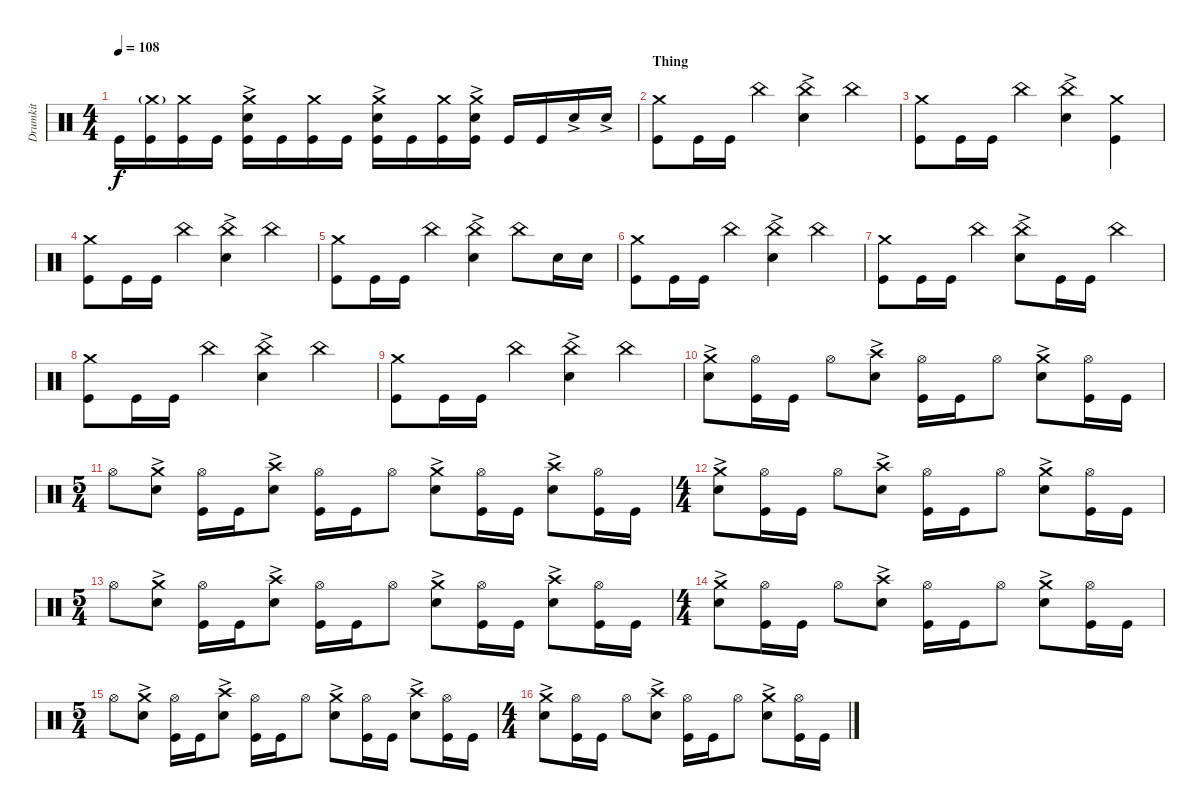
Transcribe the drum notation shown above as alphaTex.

\track ("Drumkit" "Drumkit") {instrument percussion}
\staff {score}
\articulation defaults
\ts (4 4)
\tempo 108
\clef neutral
\ks c "Kick (hit)".16{dy f}
("Kick (hit)" "Crash medium (hit)"{g}).16 ("Kick (hit)" "Crash medium (hit)").16 "Kick (hit)".16 ("Kick (hit)" "Snare (hit) 2"{ac} "Crash medium (hit)").16 "Kick (hit)".16 ("Kick (hit)" "Crash medium (hit)").16 "Kick (hit)".16 ("Kick (hit)" "Snare (hit) 2"{ac} "Crash medium (hit)").16 "Kick (hit)".16 ("Kick (hit)" "Crash medium (hit)").16 ("Kick (hit)" "Snare (hit) 2"{ac} "Crash medium (hit)").16 "Kick (hit)".16 "Kick (hit)".16 "Snare (hit) 2"{ac}.16 "Snare (hit) 2"{ac}.16 |
\section ("" "Thing")
("Kick (hit)" "Crash medium (hit)").8 "Kick (hit)".16 "Kick (hit)".16 "China (hit)".4 ("China (hit)" "Snare (hit) 2"{ac}).4 "China (hit)".4 |
("Kick (hit)" "Crash medium (hit)").8 "Kick (hit)".16 "Kick (hit)".16 "China (hit)".4 ("China (hit)" "Snare (hit) 2"{ac}).4 ("Kick (hit)" "Crash medium (hit)").4 |
("Kick (hit)" "Crash medium (hit)").8 "Kick (hit)".16 "Kick (hit)".16 "China (hit)".4 ("China (hit)" "Snare (hit) 2"{ac}).4 "China (hit)".4 |
("Kick (hit)" "Crash medium (hit)").8 "Kick (hit)".16 "Kick (hit)".16 "China (hit)".4 ("China (hit)" "Snare (hit) 2"{ac}).4 "China (hit)".8 "Snare (hit) 2".16 "Snare (hit) 2".16 |
("Kick (hit)" "Crash medium (hit)").8 "Kick (hit)".16 "Kick (hit)".16 "China (hit)".4 ("China (hit)" "Snare (hit) 2"{ac}).4 "China (hit)".4 |
("Kick (hit)" "Crash medium (hit)").8 "Kick (hit)".16 "Kick (hit)".16 "China (hit)".4 ("China (hit)" "Snare (hit) 2"{ac}).8 "Kick (hit)".16 "Kick (hit)".16 "China (hit)".4 |
("Kick (hit)" "Crash medium (hit)").8 "Kick (hit)".16 "Kick (hit)".16 "China (hit)".4 ("China (hit)" "Snare (hit) 2"{ac}).4 "China (hit)".4 |
("Kick (hit)" "Crash medium (hit)").8 "Kick (hit)".16 "Kick (hit)".16 "China (hit)".4 ("China (hit)" "Snare (hit) 2"{ac}).4 "China (hit)".4 |
("Snare (hit) 2"{ac} "Crash medium (hit)").8 ("Kick (hit)" "Hi-Hat (open)").16 "Kick (hit)".16 "Hi-Hat (open)".8 ("Snare (hit) 2"{ac} "Crash high (hit)").8 ("Kick (hit)" "Hi-Hat (open)").16 "Kick (hit)".16 "Hi-Hat (open)".8 ("Snare (hit) 2"{ac} "Crash medium (hit)").8 ("Kick (hit)" "Hi-Hat (open)").16 "Kick (hit)".16 |
\ts (5 4)
"Hi-Hat (open)".8 ("Snare (hit) 2"{ac} "Crash medium (hit)").8 ("Kick (hit)" "Hi-Hat (open)").16 "Kick (hit)".16 ("Snare (hit) 2"{ac} "Crash high (hit)").8 ("Kick (hit)" "Hi-Hat (open)").16 "Kick (hit)".16 "Hi-Hat (open)".8 ("Snare (hit) 2"{ac} "Crash medium (hit)").8 ("Kick (hit)" "Hi-Hat (open)").16 "Kick (hit)".16 ("Snare (hit) 2"{ac} "Crash high (hit)").8 ("Kick (hit)" "Hi-Hat (open)").16 "Kick (hit)".16 |
\ts (4 4)
("Snare (hit) 2"{ac} "Crash medium (hit)").8 ("Kick (hit)" "Hi-Hat (open)").16 "Kick (hit)".16 "Hi-Hat (open)".8 ("Snare (hit) 2"{ac} "Crash high (hit)").8 ("Kick (hit)" "Hi-Hat (open)").16 "Kick (hit)".16 "Hi-Hat (open)".8 ("Snare (hit) 2"{ac} "Crash medium (hit)").8 ("Kick (hit)" "Hi-Hat (open)").16 "Kick (hit)".16 |
\ts (5 4)
"Hi-Hat (open)".8 ("Snare (hit) 2"{ac} "Crash medium (hit)").8 ("Kick (hit)" "Hi-Hat (open)").16 "Kick (hit)".16 ("Snare (hit) 2"{ac} "Crash high (hit)").8 ("Kick (hit)" "Hi-Hat (open)").16 "Kick (hit)".16 "Hi-Hat (open)".8 ("Snare (hit) 2"{ac} "Crash medium (hit)").8 ("Kick (hit)" "Hi-Hat (open)").16 "Kick (hit)".16 ("Snare (hit) 2"{ac} "Crash high (hit)").8 ("Kick (hit)" "Hi-Hat (open)").16 "Kick (hit)".16 |
\ts (4 4)
("Snare (hit) 2"{ac} "Crash medium (hit)").8 ("Kick (hit)" "Hi-Hat (open)").16 "Kick (hit)".16 "Hi-Hat (open)".8 ("Snare (hit) 2"{ac} "Crash high (hit)").8 ("Kick (hit)" "Hi-Hat (open)").16 "Kick (hit)".16 "Hi-Hat (open)".8 ("Snare (hit) 2"{ac} "Crash medium (hit)").8 ("Kick (hit)" "Hi-Hat (open)").16 "Kick (hit)".16 |
\ts (5 4)
"Hi-Hat (open)".8 ("Snare (hit) 2"{ac} "Crash medium (hit)").8 ("Kick (hit)" "Hi-Hat (open)").16 "Kick (hit)".16 ("Snare (hit) 2"{ac} "Crash high (hit)").8 ("Kick (hit)" "Hi-Hat (open)").16 "Kick (hit)".16 "Hi-Hat (open)".8 ("Snare (hit) 2"{ac} "Crash medium (hit)").8 ("Kick (hit)" "Hi-Hat (open)").16 "Kick (hit)".16 ("Snare (hit) 2"{ac} "Crash high (hit)").8 ("Kick (hit)" "Hi-Hat (open)").16 "Kick (hit)".16 |
\ts (4 4)
("Snare (hit) 2"{ac} "Crash medium (hit)").8 ("Kick (hit)" "Hi-Hat (open)").16 "Kick (hit)".16 "Hi-Hat (open)".8 ("Snare (hit) 2"{ac} "Crash high (hit)").8 ("Kick (hit)" "Hi-Hat (open)").16 "Kick (hit)".16 "Hi-Hat (open)".8 ("Snare (hit) 2"{ac} "Crash medium (hit)").8 ("Kick (hit)" "Hi-Hat (open)").16 "Kick (hit)".16
